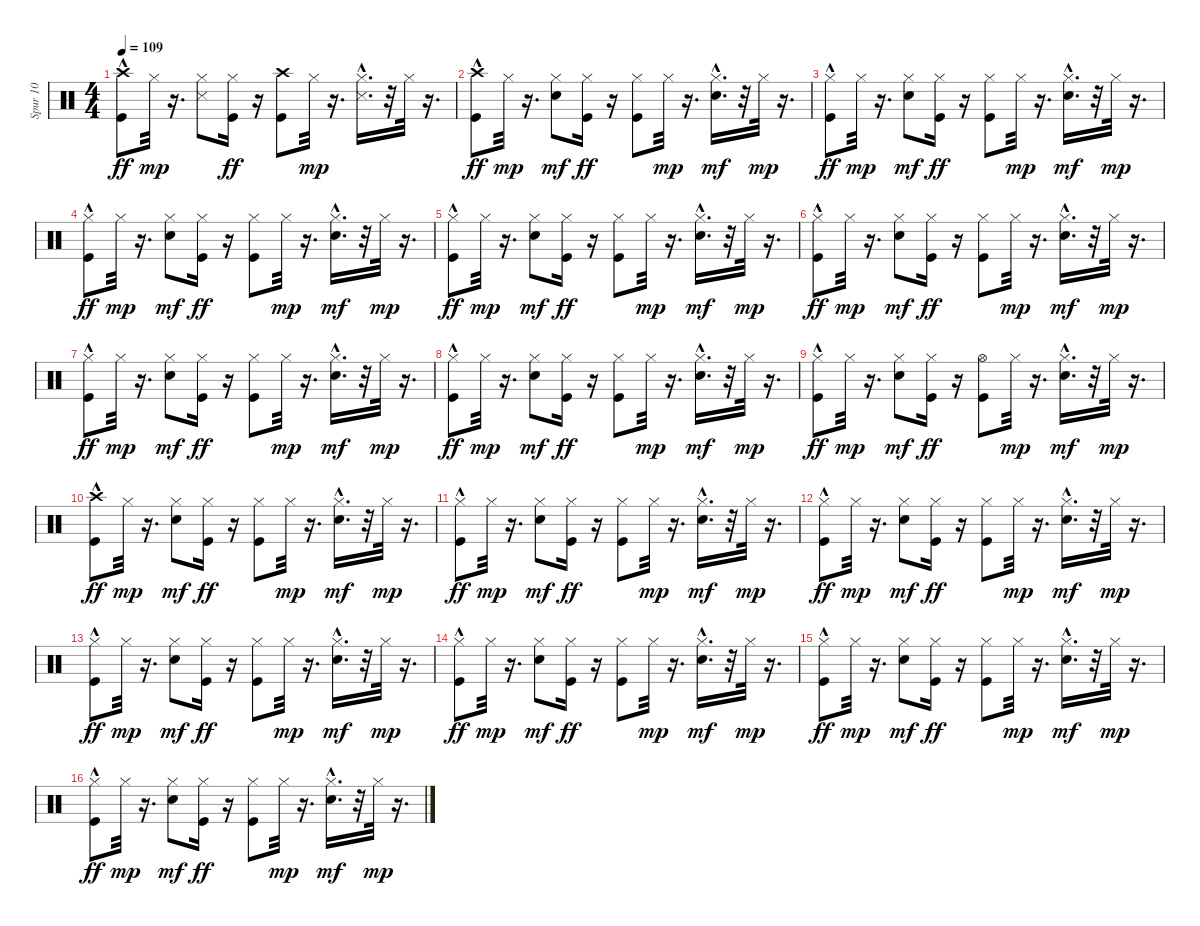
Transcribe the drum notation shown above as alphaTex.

\track ("Spur 10" "Spur 10") {instrument percussion}
\staff {score}
\articulation defaults
\ts (4 4)
\tempo 109
\clef neutral
\ks c
("Crash high (hit)" "Kick (hit)"{hac}).8{dy ff} "Hi-Hat (closed)".32{dy mp} r.16{d} ("Hi-Hat (closed)" "Snare (side stick) 3").8 ("Hi-Hat (closed)" "Kick (hit)").16{dy ff} r.16 ("Crash high (hit)" "Kick (hit)").8 "Hi-Hat (closed)".32{dy mp} r.16{d} ("Hi-Hat (closed)" "Snare (side stick) 3"{hac}).16{d} r.32 "Hi-Hat (closed)".32 r.16{d} |
("Crash high (hit)" "Kick (hit)"{hac}).8{dy ff} "Hi-Hat (closed)".32{dy mp} r.16{d} ("Hi-Hat (closed)" "Electric Snare (hit)").8{dy mf} ("Hi-Hat (closed)" "Kick (hit)").16{dy ff} r.16 ("Hi-Hat (closed)" "Kick (hit)").8 "Hi-Hat (closed)".32{dy mp} r.16{d} ("Hi-Hat (closed)" "Electric Snare (hit)"{hac}).16{d dy mf} r.32 "Hi-Hat (closed)".32{dy mp} r.16{d} |
("Hi-Hat (closed)" "Kick (hit)"{hac}).8{dy ff} "Hi-Hat (closed)".32{dy mp} r.16{d} ("Hi-Hat (closed)" "Electric Snare (hit)").8{dy mf} ("Hi-Hat (closed)" "Kick (hit)").16{dy ff} r.16 ("Hi-Hat (closed)" "Kick (hit)").8 "Hi-Hat (closed)".32{dy mp} r.16{d} ("Hi-Hat (closed)" "Electric Snare (hit)"{hac}).16{d dy mf} r.32 "Hi-Hat (closed)".32{dy mp} r.16{d} |
("Hi-Hat (closed)" "Kick (hit)"{hac}).8{dy ff} "Hi-Hat (closed)".32{dy mp} r.16{d} ("Hi-Hat (closed)" "Electric Snare (hit)").8{dy mf} ("Hi-Hat (closed)" "Kick (hit)").16{dy ff} r.16 ("Hi-Hat (closed)" "Kick (hit)").8 "Hi-Hat (closed)".32{dy mp} r.16{d} ("Hi-Hat (closed)" "Electric Snare (hit)"{hac}).16{d dy mf} r.32 "Hi-Hat (closed)".32{dy mp} r.16{d} |
("Hi-Hat (closed)" "Kick (hit)"{hac}).8{dy ff} "Hi-Hat (closed)".32{dy mp} r.16{d} ("Hi-Hat (closed)" "Electric Snare (hit)").8{dy mf} ("Hi-Hat (closed)" "Kick (hit)").16{dy ff} r.16 ("Hi-Hat (closed)" "Kick (hit)").8 "Hi-Hat (closed)".32{dy mp} r.16{d} ("Hi-Hat (closed)" "Electric Snare (hit)"{hac}).16{d dy mf} r.32 "Hi-Hat (closed)".32{dy mp} r.16{d} |
("Hi-Hat (closed)" "Kick (hit)"{hac}).8{dy ff} "Hi-Hat (closed)".32{dy mp} r.16{d} ("Hi-Hat (closed)" "Electric Snare (hit)").8{dy mf} ("Hi-Hat (closed)" "Kick (hit)").16{dy ff} r.16 ("Hi-Hat (closed)" "Kick (hit)").8 "Hi-Hat (closed)".32{dy mp} r.16{d} ("Hi-Hat (closed)" "Electric Snare (hit)"{hac}).16{d dy mf} r.32 "Hi-Hat (closed)".32{dy mp} r.16{d} |
("Hi-Hat (closed)" "Kick (hit)"{hac}).8{dy ff} "Hi-Hat (closed)".32{dy mp} r.16{d} ("Hi-Hat (closed)" "Electric Snare (hit)").8{dy mf} ("Hi-Hat (closed)" "Kick (hit)").16{dy ff} r.16 ("Hi-Hat (closed)" "Kick (hit)").8 "Hi-Hat (closed)".32{dy mp} r.16{d} ("Hi-Hat (closed)" "Electric Snare (hit)"{hac}).16{d dy mf} r.32 "Hi-Hat (closed)".32{dy mp} r.16{d} |
("Hi-Hat (closed)" "Kick (hit)"{hac}).8{dy ff} "Hi-Hat (closed)".32{dy mp} r.16{d} ("Hi-Hat (closed)" "Electric Snare (hit)").8{dy mf} ("Hi-Hat (closed)" "Kick (hit)").16{dy ff} r.16 ("Hi-Hat (closed)" "Kick (hit)").8 "Hi-Hat (closed)".32{dy mp} r.16{d} ("Hi-Hat (closed)" "Electric Snare (hit)"{hac}).16{d dy mf} r.32 "Hi-Hat (closed)".32{dy mp} r.16{d} |
("Hi-Hat (closed)" "Kick (hit)"{hac}).8{dy ff} "Hi-Hat (closed)".32{dy mp} r.16{d} ("Hi-Hat (closed)" "Electric Snare (hit)").8{dy mf} ("Hi-Hat (closed)" "Kick (hit)").16{dy ff} r.16 ("Hi-Hat (open)" "Kick (hit)").8 "Hi-Hat (closed)".32{dy mp} r.16{d} ("Hi-Hat (closed)" "Electric Snare (hit)"{hac}).16{d dy mf} r.32 "Hi-Hat (closed)".32{dy mp} r.16{d} |
("Crash high (hit)" "Kick (hit)"{hac}).8{dy ff} "Hi-Hat (closed)".32{dy mp} r.16{d} ("Hi-Hat (closed)" "Electric Snare (hit)").8{dy mf} ("Hi-Hat (closed)" "Kick (hit)").16{dy ff} r.16 ("Hi-Hat (closed)" "Kick (hit)").8 "Hi-Hat (closed)".32{dy mp} r.16{d} ("Hi-Hat (closed)" "Electric Snare (hit)"{hac}).16{d dy mf} r.32 "Hi-Hat (closed)".32{dy mp} r.16{d} |
("Hi-Hat (closed)" "Kick (hit)"{hac}).8{dy ff} "Hi-Hat (closed)".32{dy mp} r.16{d} ("Hi-Hat (closed)" "Electric Snare (hit)").8{dy mf} ("Hi-Hat (closed)" "Kick (hit)").16{dy ff} r.16 ("Hi-Hat (closed)" "Kick (hit)").8 "Hi-Hat (closed)".32{dy mp} r.16{d} ("Hi-Hat (closed)" "Electric Snare (hit)"{hac}).16{d dy mf} r.32 "Hi-Hat (closed)".32{dy mp} r.16{d} |
("Hi-Hat (closed)" "Kick (hit)"{hac}).8{dy ff} "Hi-Hat (closed)".32{dy mp} r.16{d} ("Hi-Hat (closed)" "Electric Snare (hit)").8{dy mf} ("Hi-Hat (closed)" "Kick (hit)").16{dy ff} r.16 ("Hi-Hat (closed)" "Kick (hit)").8 "Hi-Hat (closed)".32{dy mp} r.16{d} ("Hi-Hat (closed)" "Electric Snare (hit)"{hac}).16{d dy mf} r.32 "Hi-Hat (closed)".32{dy mp} r.16{d} |
("Hi-Hat (closed)" "Kick (hit)"{hac}).8{dy ff} "Hi-Hat (closed)".32{dy mp} r.16{d} ("Hi-Hat (closed)" "Electric Snare (hit)").8{dy mf} ("Hi-Hat (closed)" "Kick (hit)").16{dy ff} r.16 ("Hi-Hat (closed)" "Kick (hit)").8 "Hi-Hat (closed)".32{dy mp} r.16{d} ("Hi-Hat (closed)" "Electric Snare (hit)"{hac}).16{d dy mf} r.32 "Hi-Hat (closed)".32{dy mp} r.16{d} |
("Hi-Hat (closed)" "Kick (hit)"{hac}).8{dy ff} "Hi-Hat (closed)".32{dy mp} r.16{d} ("Hi-Hat (closed)" "Electric Snare (hit)").8{dy mf} ("Hi-Hat (closed)" "Kick (hit)").16{dy ff} r.16 ("Hi-Hat (closed)" "Kick (hit)").8 "Hi-Hat (closed)".32{dy mp} r.16{d} ("Hi-Hat (closed)" "Electric Snare (hit)"{hac}).16{d dy mf} r.32 "Hi-Hat (closed)".32{dy mp} r.16{d} |
("Hi-Hat (closed)" "Kick (hit)"{hac}).8{dy ff} "Hi-Hat (closed)".32{dy mp} r.16{d} ("Hi-Hat (closed)" "Electric Snare (hit)").8{dy mf} ("Hi-Hat (closed)" "Kick (hit)").16{dy ff} r.16 ("Hi-Hat (closed)" "Kick (hit)").8 "Hi-Hat (closed)".32{dy mp} r.16{d} ("Hi-Hat (closed)" "Electric Snare (hit)"{hac}).16{d dy mf} r.32 "Hi-Hat (closed)".32{dy mp} r.16{d} |
("Hi-Hat (closed)" "Kick (hit)"{hac}).8{dy ff} "Hi-Hat (closed)".32{dy mp} r.16{d} ("Hi-Hat (closed)" "Electric Snare (hit)").8{dy mf} ("Hi-Hat (closed)" "Kick (hit)").16{dy ff} r.16 ("Hi-Hat (closed)" "Kick (hit)").8 "Hi-Hat (closed)".32{dy mp} r.16{d} ("Hi-Hat (closed)" "Electric Snare (hit)"{hac}).16{d dy mf} r.32 "Hi-Hat (closed)".32{dy mp} r.16{d}
